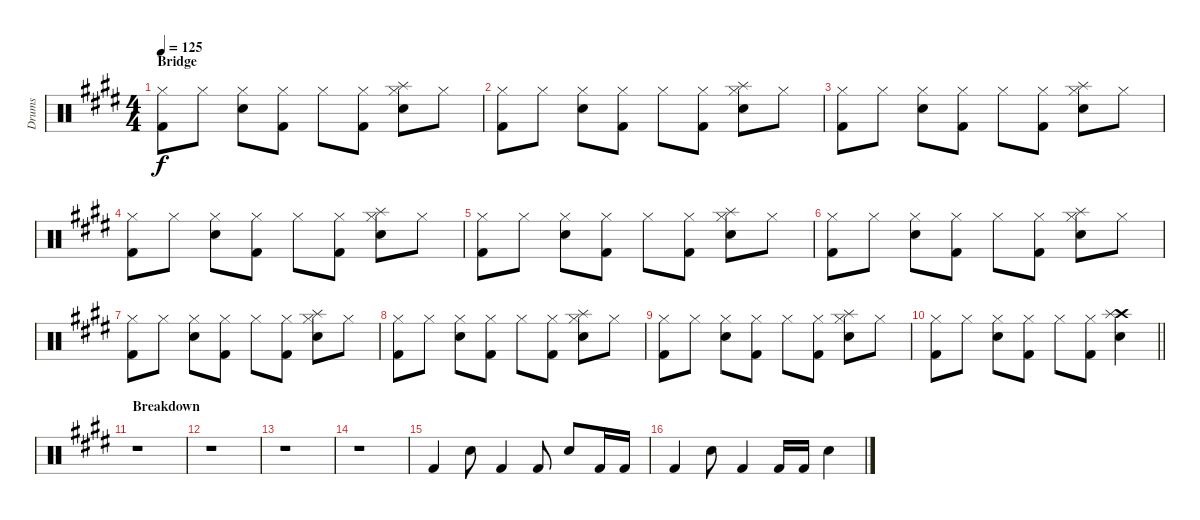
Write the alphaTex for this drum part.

\track ("Drums" "Drums") {instrument percussion}
\staff {score}
\articulation defaults
\ts (4 4)
\section ("" "Bridge")
\tempo 125
\clef neutral
\ks c#minor
("Hi-Hat (closed)" "Kick (hit) 2").8{dy f} "Hi-Hat (closed)".8 ("Hi-Hat (closed)" "Snare (hit) 2").8 ("Hi-Hat (closed)" "Kick (hit) 2").8 "Hi-Hat (closed)".8 ("Hi-Hat (closed)" "Kick (hit) 2").8 ("Hi-Hat (closed)" "Snare (hit) 2" "Splash (hit)").8 "Hi-Hat (closed)".8 |
("Hi-Hat (closed)" "Kick (hit) 2").8 "Hi-Hat (closed)".8 ("Hi-Hat (closed)" "Snare (hit) 2").8 ("Hi-Hat (closed)" "Kick (hit) 2").8 "Hi-Hat (closed)".8 ("Hi-Hat (closed)" "Kick (hit) 2").8 ("Hi-Hat (closed)" "Snare (hit) 2" "Splash (hit)").8 "Hi-Hat (closed)".8 |
("Hi-Hat (closed)" "Kick (hit) 2").8 "Hi-Hat (closed)".8 ("Hi-Hat (closed)" "Snare (hit) 2").8 ("Hi-Hat (closed)" "Kick (hit) 2").8 "Hi-Hat (closed)".8 ("Hi-Hat (closed)" "Kick (hit) 2").8 ("Hi-Hat (closed)" "Snare (hit) 2" "Splash (hit)").8 "Hi-Hat (closed)".8 |
("Hi-Hat (closed)" "Kick (hit) 2").8 "Hi-Hat (closed)".8 ("Hi-Hat (closed)" "Snare (hit) 2").8 ("Hi-Hat (closed)" "Kick (hit) 2").8 "Hi-Hat (closed)".8 ("Hi-Hat (closed)" "Kick (hit) 2").8 ("Hi-Hat (closed)" "Snare (hit) 2" "Splash (hit)").8 "Hi-Hat (closed)".8 |
("Hi-Hat (closed)" "Kick (hit) 2").8 "Hi-Hat (closed)".8 ("Hi-Hat (closed)" "Snare (hit) 2").8 ("Hi-Hat (closed)" "Kick (hit) 2").8 "Hi-Hat (closed)".8 ("Hi-Hat (closed)" "Kick (hit) 2").8 ("Hi-Hat (closed)" "Snare (hit) 2" "Splash (hit)").8 "Hi-Hat (closed)".8 |
("Hi-Hat (closed)" "Kick (hit) 2").8 "Hi-Hat (closed)".8 ("Hi-Hat (closed)" "Snare (hit) 2").8 ("Hi-Hat (closed)" "Kick (hit) 2").8 "Hi-Hat (closed)".8 ("Hi-Hat (closed)" "Kick (hit) 2").8 ("Hi-Hat (closed)" "Snare (hit) 2" "Splash (hit)").8 "Hi-Hat (closed)".8 |
("Hi-Hat (closed)" "Kick (hit) 2").8 "Hi-Hat (closed)".8 ("Hi-Hat (closed)" "Snare (hit) 2").8 ("Hi-Hat (closed)" "Kick (hit) 2").8 "Hi-Hat (closed)".8 ("Hi-Hat (closed)" "Kick (hit) 2").8 ("Hi-Hat (closed)" "Snare (hit) 2" "Splash (hit)").8 "Hi-Hat (closed)".8 |
("Hi-Hat (closed)" "Kick (hit) 2").8 "Hi-Hat (closed)".8 ("Hi-Hat (closed)" "Snare (hit) 2").8 ("Hi-Hat (closed)" "Kick (hit) 2").8 "Hi-Hat (closed)".8 ("Hi-Hat (closed)" "Kick (hit) 2").8 ("Hi-Hat (closed)" "Snare (hit) 2" "Splash (hit)").8 "Hi-Hat (closed)".8 |
("Hi-Hat (closed)" "Kick (hit) 2").8 "Hi-Hat (closed)".8 ("Hi-Hat (closed)" "Snare (hit) 2").8 ("Hi-Hat (closed)" "Kick (hit) 2").8 "Hi-Hat (closed)".8 ("Hi-Hat (closed)" "Kick (hit) 2").8 ("Hi-Hat (closed)" "Snare (hit) 2" "Splash (hit)").8 "Hi-Hat (closed)".8 |
\barLineRight lightlight
("Hi-Hat (closed)" "Kick (hit) 2").8 "Hi-Hat (closed)".8 ("Hi-Hat (closed)" "Snare (hit) 2").8 ("Hi-Hat (closed)" "Kick (hit) 2").8 "Hi-Hat (closed)".8 ("Hi-Hat (closed)" "Kick (hit) 2").8 ("Crash high (hit)" "Snare (hit) 2" "Splash (hit)").4 |
\section ("" "Breakdown")
r.1 |
r.1 |
r.1 |
r.1 |
"Kick (hit) 2".4 "Snare (hit) 2".8 "Kick (hit) 2".4 "Kick (hit) 2".8 "Snare (hit) 2".8 "Kick (hit) 2".16 "Kick (hit) 2".16 |
"Kick (hit) 2".4 "Snare (hit) 2".8 "Kick (hit) 2".4 "Kick (hit) 2".16 "Kick (hit) 2".16 "Snare (hit) 2".4
